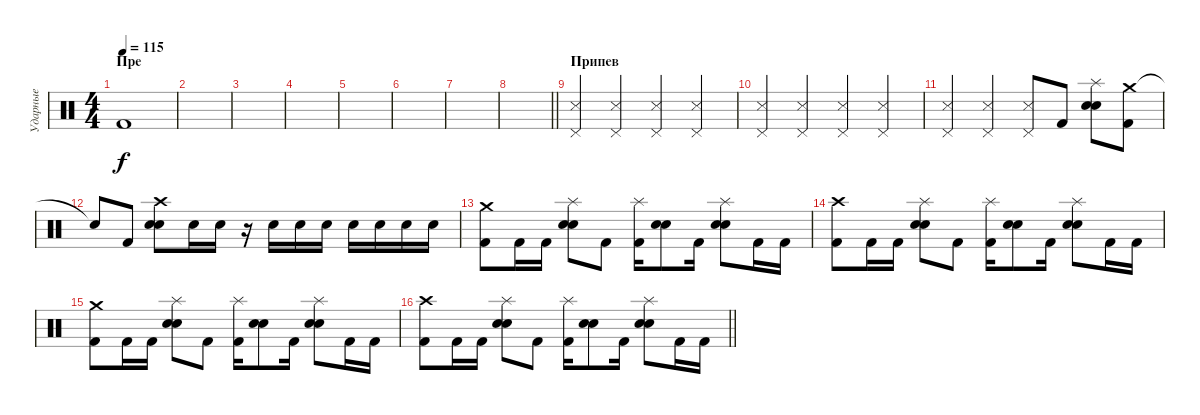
\track ("Ударные" "Ударные") {instrument percussion}
\staff {score}
\articulation defaults
\ts (4 4)
\section ("" "Пре")
\tempo 115
\clef neutral
\ks c "Kick (hit) 2".1{dy f}
|
|
|
|
|
|
|
\barLineRight lightlight
|
\section ("" "Припев")
("Pedal Hi-Hat (hit)" "Metronome (hit)").4 ("Pedal Hi-Hat (hit)" "Metronome (hit)").4 ("Pedal Hi-Hat (hit)" "Metronome (hit)").4 ("Pedal Hi-Hat (hit)" "Metronome (hit)").4 |
("Pedal Hi-Hat (hit)" "Metronome (hit)").4 ("Pedal Hi-Hat (hit)" "Metronome (hit)").4 ("Pedal Hi-Hat (hit)" "Metronome (hit)").4 ("Pedal Hi-Hat (hit)" "Metronome (hit)").4 |
("Pedal Hi-Hat (hit)" "Metronome (hit)").4 ("Pedal Hi-Hat (hit)" "Metronome (hit)").4 ("Pedal Hi-Hat (hit)" "Metronome (hit)").8 "Kick (hit) 2".8 ("Splash (hit)" "Electric Snare (hit)" "Snare (hit) 2").8 ("Crash medium (hit)" "Kick (hit) 2").8 |
"Snare (hit)"{t}.8 "Kick (hit) 2".8 ("Crash high (hit)" "Electric Snare (hit)" "Snare (hit) 2").8 "Electric Snare (hit)".16 "Electric Snare (hit)".16 r.16 "Electric Snare (hit)".16 "Electric Snare (hit)".16 "Electric Snare (hit)".16 "Electric Snare (hit)".16 "Electric Snare (hit)".16 "Electric Snare (hit)".16 "Electric Snare (hit)".16 |
("Crash medium (hit)" "Kick (hit) 2").8 "Kick (hit) 2".16 "Kick (hit) 2".16 ("Splash (hit)" "Electric Snare (hit)" "Snare (hit) 2").8 "Kick (hit) 2".8 ("Splash (hit)" "Kick (hit) 2").16 ("Electric Snare (hit)" "Snare (hit) 2").8 "Kick (hit) 2".16 ("Splash (hit)" "Electric Snare (hit)" "Snare (hit) 2").8 "Kick (hit) 2".16 "Kick (hit) 2".16 |
("Crash high (hit)" "Kick (hit) 2").8 "Kick (hit) 2".16 "Kick (hit) 2".16 ("Splash (hit)" "Electric Snare (hit)" "Snare (hit) 2").8 "Kick (hit) 2".8 ("Splash (hit)" "Kick (hit) 2").16 ("Electric Snare (hit)" "Snare (hit) 2").8 "Kick (hit) 2".16 ("Splash (hit)" "Electric Snare (hit)" "Snare (hit) 2").8 "Kick (hit) 2".16 "Kick (hit) 2".16 |
("Crash medium (hit)" "Kick (hit) 2").8 "Kick (hit) 2".16 "Kick (hit) 2".16 ("Splash (hit)" "Electric Snare (hit)" "Snare (hit) 2").8 "Kick (hit) 2".8 ("Splash (hit)" "Kick (hit) 2").16 ("Electric Snare (hit)" "Snare (hit) 2").8 "Kick (hit) 2".16 ("Splash (hit)" "Electric Snare (hit)" "Snare (hit) 2").8 "Kick (hit) 2".16 "Kick (hit) 2".16 |
\barLineRight lightlight
("Crash high (hit)" "Kick (hit) 2").8 "Kick (hit) 2".16 "Kick (hit) 2".16 ("Splash (hit)" "Electric Snare (hit)" "Snare (hit) 2").8 "Kick (hit) 2".8 ("Splash (hit)" "Kick (hit) 2").16 ("Electric Snare (hit)" "Snare (hit) 2").8 "Kick (hit) 2".16 ("Splash (hit)" "Electric Snare (hit)" "Snare (hit) 2").8 "Kick (hit) 2".16 "Kick (hit) 2".16
